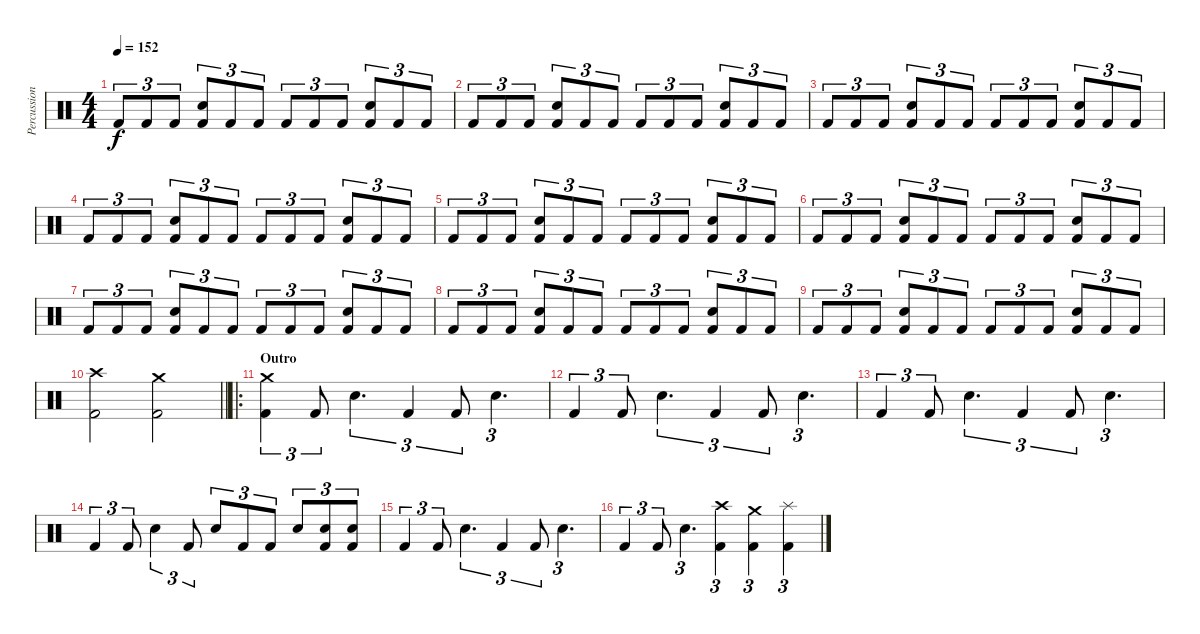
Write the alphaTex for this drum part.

\track ("Percussion" "Percussion") {instrument percussion}
\staff {score}
\articulation defaults
\ts (4 4)
\tempo 152
\clef neutral
\ks c "Kick (hit) 2".8{tu (3 2) dy f} "Kick (hit) 2".8{tu (3 2)} "Kick (hit) 2".8{tu (3 2)}
("Kick (hit) 2" "Electric Snare (hit)").8{tu (3 2)} "Kick (hit) 2".8{tu (3 2)} "Kick (hit) 2".8{tu (3 2)} "Kick (hit) 2".8{tu (3 2)} "Kick (hit) 2".8{tu (3 2)} "Kick (hit) 2".8{tu (3 2)} ("Kick (hit) 2" "Electric Snare (hit)").8{tu (3 2)} "Kick (hit) 2".8{tu (3 2)} "Kick (hit) 2".8{tu (3 2)} |
"Kick (hit) 2".8{tu (3 2)} "Kick (hit) 2".8{tu (3 2)} "Kick (hit) 2".8{tu (3 2)} ("Kick (hit) 2" "Electric Snare (hit)").8{tu (3 2)} "Kick (hit) 2".8{tu (3 2)} "Kick (hit) 2".8{tu (3 2)} "Kick (hit) 2".8{tu (3 2)} "Kick (hit) 2".8{tu (3 2)} "Kick (hit) 2".8{tu (3 2)} ("Kick (hit) 2" "Electric Snare (hit)").8{tu (3 2)} "Kick (hit) 2".8{tu (3 2)} "Kick (hit) 2".8{tu (3 2)} |
"Kick (hit) 2".8{tu (3 2)} "Kick (hit) 2".8{tu (3 2)} "Kick (hit) 2".8{tu (3 2)} ("Kick (hit) 2" "Electric Snare (hit)").8{tu (3 2)} "Kick (hit) 2".8{tu (3 2)} "Kick (hit) 2".8{tu (3 2)} "Kick (hit) 2".8{tu (3 2)} "Kick (hit) 2".8{tu (3 2)} "Kick (hit) 2".8{tu (3 2)} ("Kick (hit) 2" "Electric Snare (hit)").8{tu (3 2)} "Kick (hit) 2".8{tu (3 2)} "Kick (hit) 2".8{tu (3 2)} |
"Kick (hit) 2".8{tu (3 2)} "Kick (hit) 2".8{tu (3 2)} "Kick (hit) 2".8{tu (3 2)} ("Kick (hit) 2" "Electric Snare (hit)").8{tu (3 2)} "Kick (hit) 2".8{tu (3 2)} "Kick (hit) 2".8{tu (3 2)} "Kick (hit) 2".8{tu (3 2)} "Kick (hit) 2".8{tu (3 2)} "Kick (hit) 2".8{tu (3 2)} ("Kick (hit) 2" "Electric Snare (hit)").8{tu (3 2)} "Kick (hit) 2".8{tu (3 2)} "Kick (hit) 2".8{tu (3 2)} |
"Kick (hit) 2".8{tu (3 2)} "Kick (hit) 2".8{tu (3 2)} "Kick (hit) 2".8{tu (3 2)} ("Kick (hit) 2" "Electric Snare (hit)").8{tu (3 2)} "Kick (hit) 2".8{tu (3 2)} "Kick (hit) 2".8{tu (3 2)} "Kick (hit) 2".8{tu (3 2)} "Kick (hit) 2".8{tu (3 2)} "Kick (hit) 2".8{tu (3 2)} ("Kick (hit) 2" "Electric Snare (hit)").8{tu (3 2)} "Kick (hit) 2".8{tu (3 2)} "Kick (hit) 2".8{tu (3 2)} |
"Kick (hit) 2".8{tu (3 2)} "Kick (hit) 2".8{tu (3 2)} "Kick (hit) 2".8{tu (3 2)} ("Kick (hit) 2" "Electric Snare (hit)").8{tu (3 2)} "Kick (hit) 2".8{tu (3 2)} "Kick (hit) 2".8{tu (3 2)} "Kick (hit) 2".8{tu (3 2)} "Kick (hit) 2".8{tu (3 2)} "Kick (hit) 2".8{tu (3 2)} ("Kick (hit) 2" "Electric Snare (hit)").8{tu (3 2)} "Kick (hit) 2".8{tu (3 2)} "Kick (hit) 2".8{tu (3 2)} |
"Kick (hit) 2".8{tu (3 2)} "Kick (hit) 2".8{tu (3 2)} "Kick (hit) 2".8{tu (3 2)} ("Kick (hit) 2" "Electric Snare (hit)").8{tu (3 2)} "Kick (hit) 2".8{tu (3 2)} "Kick (hit) 2".8{tu (3 2)} "Kick (hit) 2".8{tu (3 2)} "Kick (hit) 2".8{tu (3 2)} "Kick (hit) 2".8{tu (3 2)} ("Kick (hit) 2" "Electric Snare (hit)").8{tu (3 2)} "Kick (hit) 2".8{tu (3 2)} "Kick (hit) 2".8{tu (3 2)} |
"Kick (hit) 2".8{tu (3 2)} "Kick (hit) 2".8{tu (3 2)} "Kick (hit) 2".8{tu (3 2)} ("Kick (hit) 2" "Electric Snare (hit)").8{tu (3 2)} "Kick (hit) 2".8{tu (3 2)} "Kick (hit) 2".8{tu (3 2)} "Kick (hit) 2".8{tu (3 2)} "Kick (hit) 2".8{tu (3 2)} "Kick (hit) 2".8{tu (3 2)} ("Kick (hit) 2" "Electric Snare (hit)").8{tu (3 2)} "Kick (hit) 2".8{tu (3 2)} "Kick (hit) 2".8{tu (3 2)} |
"Kick (hit) 2".8{tu (3 2)} "Kick (hit) 2".8{tu (3 2)} "Kick (hit) 2".8{tu (3 2)} ("Kick (hit) 2" "Electric Snare (hit)").8{tu (3 2)} "Kick (hit) 2".8{tu (3 2)} "Kick (hit) 2".8{tu (3 2)} "Kick (hit) 2".8{tu (3 2)} "Kick (hit) 2".8{tu (3 2)} "Kick (hit) 2".8{tu (3 2)} ("Kick (hit) 2" "Electric Snare (hit)").8{tu (3 2)} "Kick (hit) 2".8{tu (3 2)} "Kick (hit) 2".8{tu (3 2)} |
\barLineRight lightlight
("Kick (hit) 2" "Crash high (hit)").2 ("Kick (hit) 2" "Crash medium (hit)").2 |
\ro
\section ("" "Outro")
("Kick (hit) 2" "Crash medium (hit)").4{tu (3 2)} "Kick (hit) 2".8{tu (3 2)} "Electric Snare (hit)".4{d tu (3 2)} "Kick (hit) 2".4{tu (3 2)} "Kick (hit) 2".8{tu (3 2)} "Electric Snare (hit)".4{d tu (3 2)} |
"Kick (hit) 2".4{tu (3 2)} "Kick (hit) 2".8{tu (3 2)} "Electric Snare (hit)".4{d tu (3 2)} "Kick (hit) 2".4{tu (3 2)} "Kick (hit) 2".8{tu (3 2)} "Electric Snare (hit)".4{d tu (3 2)} |
"Kick (hit) 2".4{tu (3 2)} "Kick (hit) 2".8{tu (3 2)} "Electric Snare (hit)".4{d tu (3 2)} "Kick (hit) 2".4{tu (3 2)} "Kick (hit) 2".8{tu (3 2)} "Electric Snare (hit)".4{d tu (3 2)} |
"Kick (hit) 2".4{tu (3 2)} "Kick (hit) 2".8{tu (3 2)} "Electric Snare (hit)".4{tu (3 2)} "Kick (hit) 2".8{tu (3 2)} "Electric Snare (hit)".8{tu (3 2)} "Kick (hit) 2".8{tu (3 2)} "Kick (hit) 2".8{tu (3 2)} "Electric Snare (hit)".8{tu (3 2)} ("Kick (hit) 2" "Electric Snare (hit)").8{tu (3 2)} ("Kick (hit) 2" "Electric Snare (hit)").8{tu (3 2)} |
"Kick (hit) 2".4{tu (3 2)} "Kick (hit) 2".8{tu (3 2)} "Electric Snare (hit)".4{d tu (3 2)} "Kick (hit) 2".4{tu (3 2)} "Kick (hit) 2".8{tu (3 2)} "Electric Snare (hit)".4{d tu (3 2)} |
"Kick (hit) 2".4{tu (3 2)} "Kick (hit) 2".8{tu (3 2)} "Electric Snare (hit)".4{d tu (3 2)} ("Kick (hit) 2" "Crash high (hit)").4{tu (3 2)} ("Kick (hit) 2" "Crash medium (hit)").4{tu (3 2)} ("Kick (hit) 2" "Splash (hit)").4{tu (3 2)}
